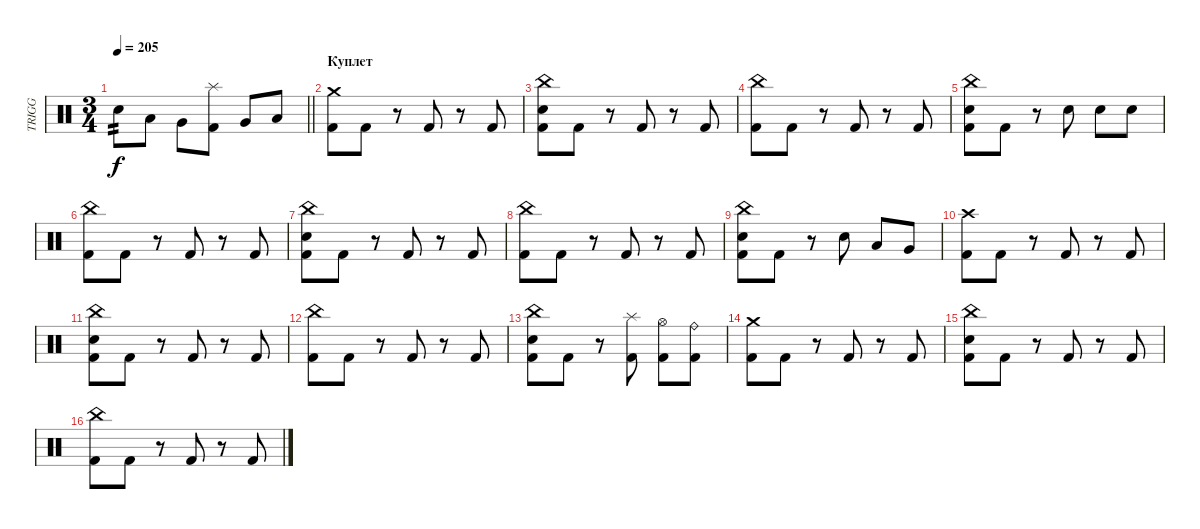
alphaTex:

\track ("TRIGG" "TRIGG") {instrument percussion}
\staff {score}
\articulation defaults
\ts (3 4)
\tempo 205
\clef neutral
\barLineRight lightlight
\ks c "Electric Snare (hit)".8{tp 2 dy f} "Low Tom (hit)".8 "Very Low Tom (hit)".8
("Splash (hit)" "Kick (hit) 2").8 "Very Low Tom (hit)".8 "Low Floor Tom (hit)".8 |
\section ("" "Куплет")
("Crash medium (hit)" "Kick (hit) 2").8 "Kick (hit) 2".8 r.8 "Kick (hit) 2".8 r.8 "Kick (hit) 2".8 |
("China (hit)" "Electric Snare (hit)" "Kick (hit) 2").8 "Kick (hit) 2".8 r.8 "Kick (hit) 2".8 r.8 "Kick (hit) 2".8 |
("China (hit)" "Kick (hit) 2").8 "Kick (hit) 2".8 r.8 "Kick (hit) 2".8 r.8 "Kick (hit) 2".8 |
("China (hit)" "Electric Snare (hit)" "Kick (hit) 2").8 "Kick (hit) 2".8 r.8 "Electric Snare (hit)".8 "Electric Snare (hit)".8 "Electric Snare (hit)".8 |
("China (hit)" "Kick (hit) 2").8 "Kick (hit) 2".8 r.8 "Kick (hit) 2".8 r.8 "Kick (hit) 2".8 |
("China (hit)" "Electric Snare (hit)" "Kick (hit) 2").8 "Kick (hit) 2".8 r.8 "Kick (hit) 2".8 r.8 "Kick (hit) 2".8 |
("China (hit)" "Kick (hit) 2").8 "Kick (hit) 2".8 r.8 "Kick (hit) 2".8 r.8 "Kick (hit) 2".8 |
("China (hit)" "Electric Snare (hit)" "Kick (hit) 2").8 "Kick (hit) 2".8 r.8 "Electric Snare (hit)".8 "Low Tom (hit)".8 "Very Low Tom (hit)".8 |
("Crash high (hit)" "Kick (hit) 2").8 "Kick (hit) 2".8 r.8 "Kick (hit) 2".8 r.8 "Kick (hit) 2".8 |
("China (hit)" "Electric Snare (hit)" "Kick (hit) 2").8 "Kick (hit) 2".8 r.8 "Kick (hit) 2".8 r.8 "Kick (hit) 2".8 |
("China (hit)" "Kick (hit) 2").8 "Kick (hit) 2".8 r.8 "Kick (hit) 2".8 r.8 "Kick (hit) 2".8 |
("China (hit)" "Electric Snare (hit)" "Kick (hit) 2").8 "Kick (hit) 2".8 r.8 ("Splash (hit)" "Kick (hit) 2").8 ("Hi-Hat (open)" "Kick (hit) 2").8 ("Ride (bell)" "Kick (hit) 2").8 |
("Crash medium (hit)" "Kick (hit) 2").8 "Kick (hit) 2".8 r.8 "Kick (hit) 2".8 r.8 "Kick (hit) 2".8 |
("China (hit)" "Electric Snare (hit)" "Kick (hit) 2").8 "Kick (hit) 2".8 r.8 "Kick (hit) 2".8 r.8 "Kick (hit) 2".8 |
("China (hit)" "Kick (hit) 2").8 "Kick (hit) 2".8 r.8 "Kick (hit) 2".8 r.8 "Kick (hit) 2".8
